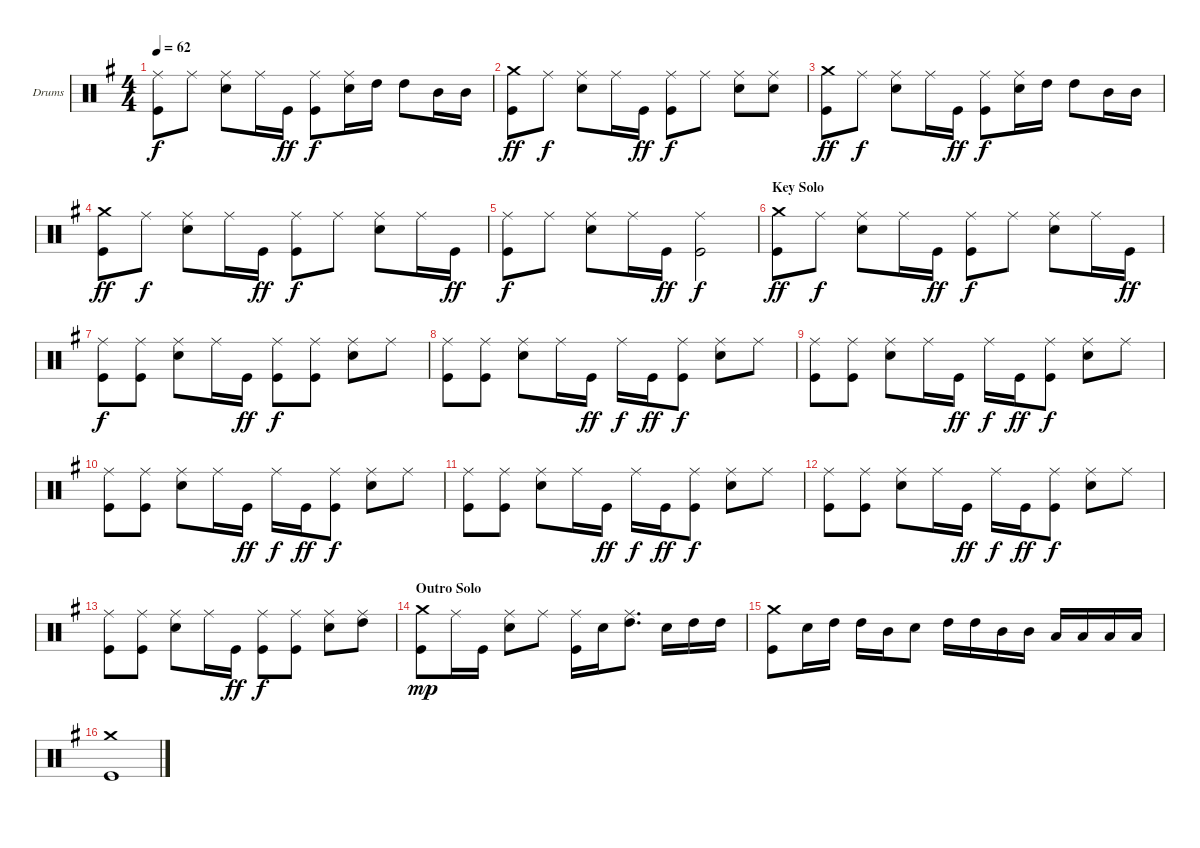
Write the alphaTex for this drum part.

\defaultSystemsLayout 4
\bracketExtendMode groupsimilarinstruments
\firstSystemTrackNameOrientation horizontal
\otherSystemsTrackNameOrientation horizontal
\track ("Drumkit" "Drums") {instrument percussion}
\staff {score}
\articulation defaults
\ts (4 4)
\tempo 62
\clef neutral
\scale
0.333333
\ks g
("Ride (middle)" "Kick (hit)").8{dy f} "Ride (middle)".8 ("Ride (middle)" "Snare (hit) 2").8 "Ride (middle)".16 "Kick (hit)".16{dy ff} ("Ride (middle)" "Kick (hit)").8{dy f} ("Ride (middle)" "Snare (hit) 2").16 "High Tom (hit)".16 "High Tom (hit)".8 "Mid Tom (hit)".16 "Mid Tom (hit)".16 |
\scale
0.333333 ("Crash medium (hit)" "Kick (hit)").8{dy ff} "Ride (middle)".8{dy f} ("Ride (middle)" "Snare (hit) 2").8 "Ride (middle)".16 "Kick (hit)".16{dy ff} ("Ride (middle)" "Kick (hit)").8{dy f} "Ride (middle)".8 ("Ride (middle)" "Snare (hit) 2").8 ("Ride (middle)" "Snare (hit) 2").8 |
\scale
0.333333 ("Crash medium (hit)" "Kick (hit)").8{dy ff} "Ride (middle)".8{dy f} ("Ride (middle)" "Snare (hit) 2").8 "Ride (middle)".16 "Kick (hit)".16{dy ff} ("Ride (middle)" "Kick (hit)").8{dy f} ("Ride (middle)" "Snare (hit) 2").16 "High Tom (hit)".16 "High Tom (hit)".8 "Mid Tom (hit)".16 "Mid Tom (hit)".16 |
\scale
0.333333 ("Crash medium (hit)" "Kick (hit)").8{dy ff} "Ride (middle)".8{dy f} ("Ride (middle)" "Snare (hit) 2").8 "Ride (middle)".16 "Kick (hit)".16{dy ff} ("Ride (middle)" "Kick (hit)").8{dy f} "Ride (middle)".8 ("Ride (middle)" "Snare (hit) 2").8 "Ride (middle)".16 "Kick (hit)".16{dy ff} |
\scale
0.333333 ("Ride (middle)" "Kick (hit)").8{dy f} "Ride (middle)".8 ("Ride (middle)" "Snare (hit) 2").8 "Ride (middle)".16 "Kick (hit)".16{dy ff} ("Ride (middle)" "Kick (hit)").2{dy f} |
\section ("" "Key Solo")
\scale
0.333333 ("Crash medium (hit)" "Kick (hit)").8{dy ff} "Ride (middle)".8{dy f} ("Ride (middle)" "Snare (hit) 2").8 "Ride (middle)".16 "Kick (hit)".16{dy ff} ("Ride (middle)" "Kick (hit)").8{dy f} "Ride (middle)".8 ("Ride (middle)" "Snare (hit) 2").8 "Ride (middle)".16 "Kick (hit)".16{dy ff} |
\scale
0.333333 ("Ride (middle)" "Kick (hit)").8{dy f} ("Ride (middle)" "Kick (hit)").8 ("Ride (middle)" "Snare (hit) 2").8 "Ride (middle)".16 "Kick (hit)".16{dy ff} ("Ride (middle)" "Kick (hit)").8{dy f} ("Ride (middle)" "Kick (hit)").8 ("Ride (middle)" "Snare (hit) 2").8 "Ride (middle)".8 |
\scale
0.333333 ("Ride (middle)" "Kick (hit)").8 ("Ride (middle)" "Kick (hit)").8 ("Ride (middle)" "Snare (hit) 2").8 "Ride (middle)".16 "Kick (hit)".16{dy ff} "Ride (middle)".16{dy f} "Kick (hit)".16{dy ff} ("Ride (middle)" "Kick (hit)").8{dy f} ("Ride (middle)" "Snare (hit) 2").8 "Ride (middle)".8 |
\scale
0.333333 ("Ride (middle)" "Kick (hit)").8 ("Ride (middle)" "Kick (hit)").8 ("Ride (middle)" "Snare (hit) 2").8 "Ride (middle)".16 "Kick (hit)".16{dy ff} "Ride (middle)".16{dy f} "Kick (hit)".16{dy ff} ("Ride (middle)" "Kick (hit)").8{dy f} ("Ride (middle)" "Snare (hit) 2").8 "Ride (middle)".8 |
\scale
0.333333 ("Ride (middle)" "Kick (hit)").8 ("Ride (middle)" "Kick (hit)").8 ("Ride (middle)" "Snare (hit) 2").8 "Ride (middle)".16 "Kick (hit)".16{dy ff} "Ride (middle)".16{dy f} "Kick (hit)".16{dy ff} ("Ride (middle)" "Kick (hit)").8{dy f} ("Ride (middle)" "Snare (hit) 2").8 "Ride (middle)".8 |
\scale
0.333333 ("Ride (middle)" "Kick (hit)").8 ("Ride (middle)" "Kick (hit)").8 ("Ride (middle)" "Snare (hit) 2").8 "Ride (middle)".16 "Kick (hit)".16{dy ff} "Ride (middle)".16{dy f} "Kick (hit)".16{dy ff} ("Ride (middle)" "Kick (hit)").8{dy f} ("Ride (middle)" "Snare (hit) 2").8 "Ride (middle)".8 |
\scale
0.333333 ("Ride (middle)" "Kick (hit)").8 ("Ride (middle)" "Kick (hit)").8 ("Ride (middle)" "Snare (hit) 2").8 "Ride (middle)".16 "Kick (hit)".16{dy ff} "Ride (middle)".16{dy f} "Kick (hit)".16{dy ff} ("Ride (middle)" "Kick (hit)").8{dy f} ("Ride (middle)" "Snare (hit) 2").8 "Ride (middle)".8 |
\scale
0.333333 ("Ride (middle)" "Kick (hit)").8 ("Ride (middle)" "Kick (hit)").8 ("Ride (middle)" "Snare (hit) 2").8 "Ride (middle)".16 "Kick (hit)".16{dy ff} ("Ride (middle)" "Kick (hit)").8{dy f} ("Ride (middle)" "Kick (hit)").8 ("Ride (middle)" "Snare (hit) 2").8 ("Ride (middle)" "High Tom (hit)").8 |
\section ("" "Outro Solo")
\scale
0.333333 ("Crash medium (hit)" "Kick (hit)").8{dy mp} "Ride (middle)".16 "Kick (hit)".16 ("Ride (middle)" "Snare (hit) 2").8 "Ride (middle)".8 ("Ride (middle)" "Kick (hit)").16 "Snare (hit) 2".16 ("Ride (middle)" "High Tom (hit)").8{d} "Snare (hit) 2".16 "High Tom (hit)".16 "High Tom (hit)".16 |
\scale
0.333333 ("Crash medium (hit)" "Kick (hit)").8 "Snare (hit) 2".16 "High Tom (hit)".16 "High Tom (hit)".16 "Mid Tom (hit)".16 "Snare (hit) 2".8 "High Tom (hit)".16 "High Tom (hit)".16 "Mid Tom (hit)".16 "Mid Tom (hit)".16 "Low Tom (hit)".16 "Low Tom (hit)".16 "Low Tom (hit)".16 "Low Tom (hit)".16 |
\scale
0.333333 ("Crash medium (hit)" "Kick (hit)").1
